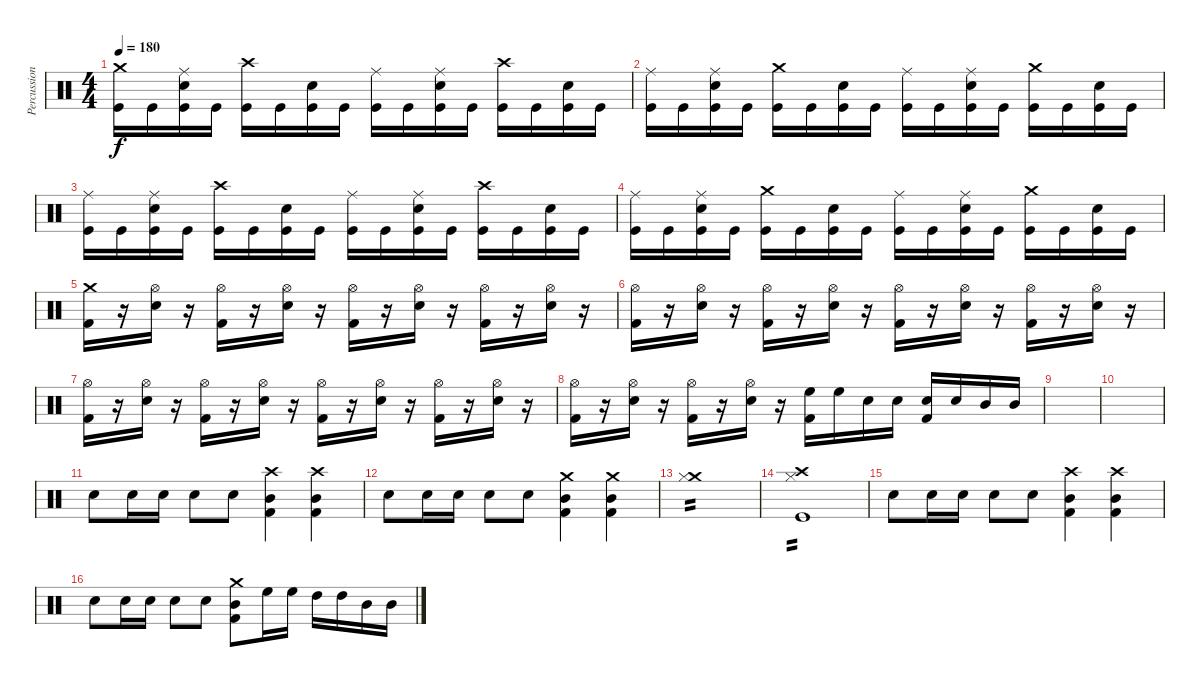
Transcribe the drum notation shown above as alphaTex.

\track ("Percussions" "Percussion") {instrument percussion}
\staff {score}
\articulation defaults
\ts (4 4)
\tempo 180
\clef neutral
\ks c
("Kick (hit)" "Crash medium (hit)").16{dy f} "Kick (hit)".16 ("Kick (hit)" "Electric Snare (hit)" "Ride (middle)").16 "Kick (hit)".16 ("Kick (hit)" "Crash high (hit)").16 "Kick (hit)".16 ("Kick (hit)" "Electric Snare (hit)").16 "Kick (hit)".16 ("Kick (hit)" "Ride (middle)").16 "Kick (hit)".16 ("Kick (hit)" "Electric Snare (hit)" "Ride (middle)").16 "Kick (hit)".16 ("Kick (hit)" "Crash high (hit)").16 "Kick (hit)".16 ("Kick (hit)" "Electric Snare (hit)").16 "Kick (hit)".16 |
("Kick (hit)" "Ride (middle)").16 "Kick (hit)".16 ("Kick (hit)" "Electric Snare (hit)" "Ride (middle)").16 "Kick (hit)".16 ("Kick (hit)" "Crash medium (hit)").16 "Kick (hit)".16 ("Kick (hit)" "Electric Snare (hit)").16 "Kick (hit)".16 ("Kick (hit)" "Ride (middle)").16 "Kick (hit)".16 ("Kick (hit)" "Electric Snare (hit)" "Ride (middle)").16 "Kick (hit)".16 ("Kick (hit)" "Crash medium (hit)").16 "Kick (hit)".16 ("Kick (hit)" "Electric Snare (hit)").16 "Kick (hit)".16 |
("Kick (hit)" "Ride (middle)").16 "Kick (hit)".16 ("Kick (hit)" "Electric Snare (hit)" "Ride (middle)").16 "Kick (hit)".16 ("Kick (hit)" "Crash high (hit)").16 "Kick (hit)".16 ("Kick (hit)" "Electric Snare (hit)").16 "Kick (hit)".16 ("Kick (hit)" "Ride (middle)").16 "Kick (hit)".16 ("Kick (hit)" "Electric Snare (hit)" "Ride (middle)").16 "Kick (hit)".16 ("Kick (hit)" "Crash high (hit)").16 "Kick (hit)".16 ("Kick (hit)" "Electric Snare (hit)").16 "Kick (hit)".16 |
("Kick (hit)" "Ride (middle)").16 "Kick (hit)".16 ("Kick (hit)" "Electric Snare (hit)" "Ride (middle)").16 "Kick (hit)".16 ("Kick (hit)" "Crash medium (hit)").16 "Kick (hit)".16 ("Kick (hit)" "Electric Snare (hit)").16 "Kick (hit)".16 ("Kick (hit)" "Ride (middle)").16 "Kick (hit)".16 ("Kick (hit)" "Electric Snare (hit)" "Ride (middle)").16 "Kick (hit)".16 ("Kick (hit)" "Crash medium (hit)").16 "Kick (hit)".16 ("Kick (hit)" "Electric Snare (hit)").16 "Kick (hit)".16 |
("Kick (hit) 2" "Crash medium (hit)").16 r.16 ("Electric Snare (hit)" "Hi-Hat (open)").16 r.16 ("Kick (hit) 2" "Hi-Hat (open)").16 r.16 ("Electric Snare (hit)" "Hi-Hat (open)").16 r.16 ("Kick (hit) 2" "Hi-Hat (open)").16 r.16 ("Electric Snare (hit)" "Hi-Hat (open)").16 r.16 ("Kick (hit) 2" "Hi-Hat (open)").16 r.16 ("Electric Snare (hit)" "Hi-Hat (open)").16 r.16 |
("Kick (hit) 2" "Hi-Hat (open)").16 r.16 ("Electric Snare (hit)" "Hi-Hat (open)").16 r.16 ("Kick (hit) 2" "Hi-Hat (open)").16 r.16 ("Electric Snare (hit)" "Hi-Hat (open)").16 r.16 ("Kick (hit) 2" "Hi-Hat (open)").16 r.16 ("Electric Snare (hit)" "Hi-Hat (open)").16 r.16 ("Kick (hit) 2" "Hi-Hat (open)").16 r.16 ("Electric Snare (hit)" "Hi-Hat (open)").16 r.16 |
("Kick (hit) 2" "Hi-Hat (open)").16 r.16 ("Electric Snare (hit)" "Hi-Hat (open)").16 r.16 ("Kick (hit) 2" "Hi-Hat (open)").16 r.16 ("Electric Snare (hit)" "Hi-Hat (open)").16 r.16 ("Kick (hit) 2" "Hi-Hat (open)").16 r.16 ("Electric Snare (hit)" "Hi-Hat (open)").16 r.16 ("Kick (hit) 2" "Hi-Hat (open)").16 r.16 ("Electric Snare (hit)" "Hi-Hat (open)").16 r.16 |
("Kick (hit) 2" "Hi-Hat (open)").16 r.16 ("Electric Snare (hit)" "Hi-Hat (open)").16 r.16 ("Kick (hit) 2" "Hi-Hat (open)").16 r.16 ("Electric Snare (hit)" "Hi-Hat (open)").16 r.16 ("Kick (hit) 2" "High Floor Tom (hit)").16 "High Floor Tom (hit)".16 "Electric Snare (hit)".16 "Electric Snare (hit)".16 ("Kick (hit) 2" "Snare (hit) 2").16 "Snare (hit) 2".16 "Mid Tom (hit)".16 "Mid Tom (hit)".16 |
|
|
"Snare (hit) 2".8 "Snare (hit) 2".16 "Snare (hit) 2".16 "Snare (hit) 2".8 "Snare (hit) 2".8 ("Crash high (hit)" "Mid Tom (hit)" "Kick (hit) 2").4 ("Crash high (hit)" "Mid Tom (hit)" "Kick (hit) 2").4 |
"Snare (hit) 2".8 "Snare (hit) 2".16 "Snare (hit) 2".16 "Snare (hit) 2".8 "Snare (hit) 2".8 ("Crash medium (hit)" "Mid Tom (hit)" "Kick (hit) 2").4 ("Crash medium (hit)" "Mid Tom (hit)" "Kick (hit) 2").4 |
("Crash medium (hit)" "Hi-Hat (closed)").1{tp 2} |
("Crash high (hit)" "Kick (hit)" "Hi-Hat (closed)").1{tp 2} |
"Snare (hit) 2".8 "Snare (hit) 2".16 "Snare (hit) 2".16 "Snare (hit) 2".8 "Snare (hit) 2".8 ("Crash high (hit)" "Mid Tom (hit)" "Kick (hit) 2").4 ("Crash high (hit)" "Mid Tom (hit)" "Kick (hit) 2").4 |
"Snare (hit) 2".8 "Snare (hit) 2".16 "Snare (hit) 2".16 "Snare (hit) 2".8 "Snare (hit) 2".8 ("Crash medium (hit)" "Mid Tom (hit)" "Kick (hit) 2").8 "High Floor Tom (hit)".16 "High Floor Tom (hit)".16 "High Tom (hit)".16 "High Tom (hit)".16 "Mid Tom (hit)".16 "Mid Tom (hit)".16
